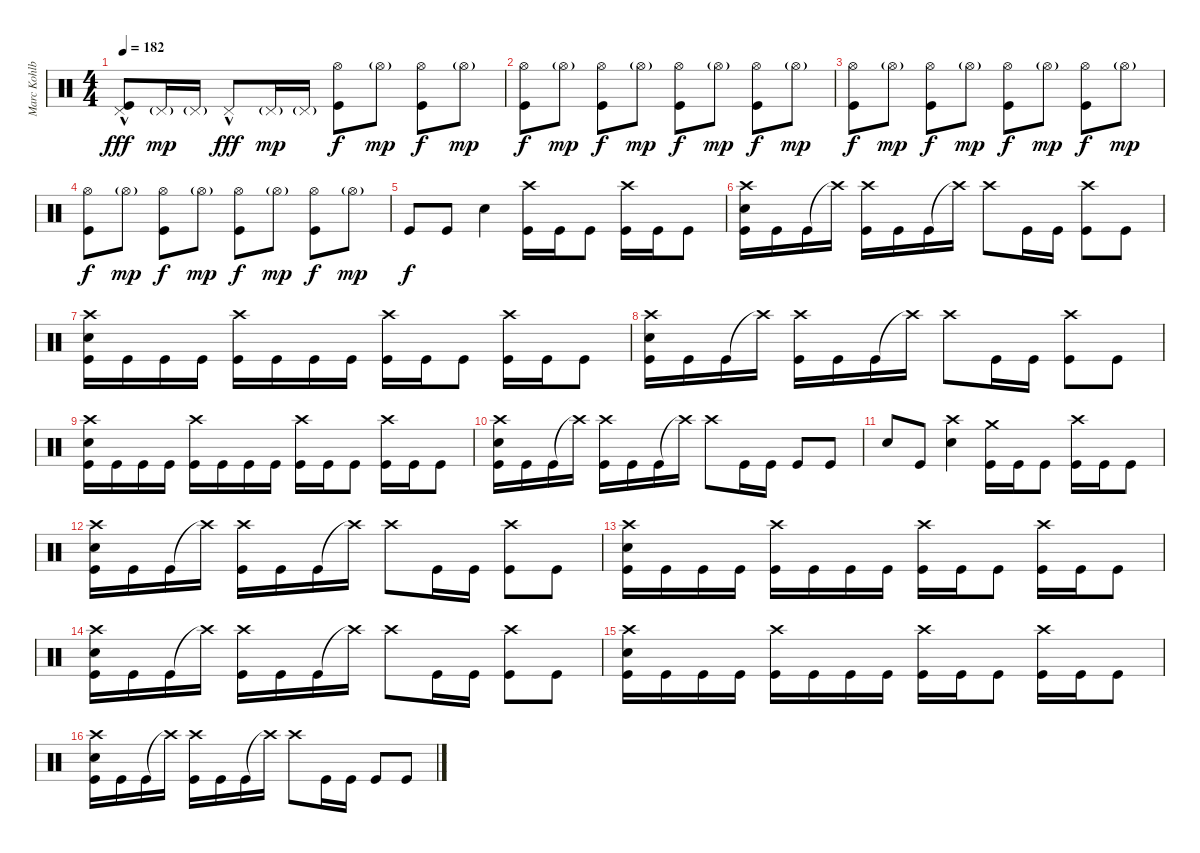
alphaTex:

\track ("Marc Kohlbry" "Marc Kohlb") {instrument percussion}
\staff {score}
\articulation defaults
\ts (4 4)
\tempo 182
\clef neutral
\ks c
("Pedal Hi-Hat (hit)"{hac} "Kick (hit)").8{dy fff} "Pedal Hi-Hat (hit)"{g}.16{dy mp} "Pedal Hi-Hat (hit)"{g}.16 "Pedal Hi-Hat (hit)"{hac}.8{dy fff} "Pedal Hi-Hat (hit)"{g}.16{dy mp} "Pedal Hi-Hat (hit)"{g}.16 ("Hi-Hat (open)" "Kick (hit)").8{dy f} "Hi-Hat (open)"{g}.8{dy mp} ("Hi-Hat (open)" "Kick (hit)").8{dy f} "Hi-Hat (open)"{g}.8{dy mp} |
("Hi-Hat (open)" "Kick (hit)").8{dy f} "Hi-Hat (open)"{g}.8{dy mp} ("Hi-Hat (open)" "Kick (hit)").8{dy f} "Hi-Hat (open)"{g}.8{dy mp} ("Hi-Hat (open)" "Kick (hit)").8{dy f} "Hi-Hat (open)"{g}.8{dy mp} ("Hi-Hat (open)" "Kick (hit)").8{dy f} "Hi-Hat (open)"{g}.8{dy mp} |
("Hi-Hat (open)" "Kick (hit)").8{dy f} "Hi-Hat (open)"{g}.8{dy mp} ("Hi-Hat (open)" "Kick (hit)").8{dy f} "Hi-Hat (open)"{g}.8{dy mp} ("Hi-Hat (open)" "Kick (hit)").8{dy f} "Hi-Hat (open)"{g}.8{dy mp} ("Hi-Hat (open)" "Kick (hit)").8{dy f} "Hi-Hat (open)"{g}.8{dy mp} |
("Hi-Hat (open)" "Kick (hit)").8{dy f} "Hi-Hat (open)"{g}.8{dy mp} ("Hi-Hat (open)" "Kick (hit)").8{dy f} "Hi-Hat (open)"{g}.8{dy mp} ("Hi-Hat (open)" "Kick (hit)").8{dy f} "Hi-Hat (open)"{g}.8{dy mp} ("Hi-Hat (open)" "Kick (hit)").8{dy f} "Hi-Hat (open)"{g}.8{dy mp} |
"Kick (hit)".8{dy f} "Kick (hit)".8 "Electric Snare (hit)".4 ("Crash high (hit)" "Kick (hit)").16 "Kick (hit)".16 "Kick (hit)".8 ("Crash high (hit)" "Kick (hit)").16 "Kick (hit)".16 "Kick (hit)".8 |
("Crash high (hit)" "Electric Snare (hit)" "Kick (hit)").16 "Kick (hit)".16 "Kick (hit)".16 "Crash high (hit)"{t}.16 ("Crash high (hit)" "Kick (hit)").16 "Kick (hit)".16 "Kick (hit)".16 "Crash high (hit)"{t}.16 "Crash high (hit)".8 "Kick (hit)".16 "Kick (hit)".16 ("Crash high (hit)" "Kick (hit)").8 "Kick (hit)".8 |
("Crash high (hit)" "Electric Snare (hit)" "Kick (hit)").16 "Kick (hit)".16 "Kick (hit)".16 "Kick (hit)".16 ("Crash high (hit)" "Kick (hit)").16 "Kick (hit)".16 "Kick (hit)".16 "Kick (hit)".16 ("Crash high (hit)" "Kick (hit)").16 "Kick (hit)".16 "Kick (hit)".8 ("Crash high (hit)" "Kick (hit)").16 "Kick (hit)".16 "Kick (hit)".8 |
("Crash high (hit)" "Electric Snare (hit)" "Kick (hit)").16 "Kick (hit)".16 "Kick (hit)".16 "Crash high (hit)"{t}.16 ("Crash high (hit)" "Kick (hit)").16 "Kick (hit)".16 "Kick (hit)".16 "Crash high (hit)"{t}.16 "Crash high (hit)".8 "Kick (hit)".16 "Kick (hit)".16 ("Crash high (hit)" "Kick (hit)").8 "Kick (hit)".8 |
("Crash high (hit)" "Electric Snare (hit)" "Kick (hit)").16 "Kick (hit)".16 "Kick (hit)".16 "Kick (hit)".16 ("Crash high (hit)" "Kick (hit)").16 "Kick (hit)".16 "Kick (hit)".16 "Kick (hit)".16 ("Crash high (hit)" "Kick (hit)").16 "Kick (hit)".16 "Kick (hit)".8 ("Crash high (hit)" "Kick (hit)").16 "Kick (hit)".16 "Kick (hit)".8 |
("Crash high (hit)" "Electric Snare (hit)" "Kick (hit)").16 "Kick (hit)".16 "Kick (hit)".16 "Crash high (hit)"{t}.16 ("Crash high (hit)" "Kick (hit)").16 "Kick (hit)".16 "Kick (hit)".16 "Crash high (hit)"{t}.16 "Crash high (hit)".8 "Kick (hit)".16 "Kick (hit)".16 "Kick (hit)".8 "Kick (hit)".8 |
"Electric Snare (hit)".8 "Kick (hit)".8 ("Crash high (hit)" "Electric Snare (hit)").4 ("Crash medium (hit)" "Kick (hit)").16 "Kick (hit)".16 "Kick (hit)".8 ("Crash high (hit)" "Kick (hit)").16 "Kick (hit)".16 "Kick (hit)".8 |
("Crash high (hit)" "Electric Snare (hit)" "Kick (hit)").16 "Kick (hit)".16 "Kick (hit)".16 "Crash high (hit)"{t}.16 ("Crash high (hit)" "Kick (hit)").16 "Kick (hit)".16 "Kick (hit)".16 "Crash high (hit)"{t}.16 "Crash high (hit)".8 "Kick (hit)".16 "Kick (hit)".16 ("Crash high (hit)" "Kick (hit)").8 "Kick (hit)".8 |
("Crash high (hit)" "Electric Snare (hit)" "Kick (hit)").16 "Kick (hit)".16 "Kick (hit)".16 "Kick (hit)".16 ("Crash high (hit)" "Kick (hit)").16 "Kick (hit)".16 "Kick (hit)".16 "Kick (hit)".16 ("Crash high (hit)" "Kick (hit)").16 "Kick (hit)".16 "Kick (hit)".8 ("Crash high (hit)" "Kick (hit)").16 "Kick (hit)".16 "Kick (hit)".8 |
("Crash high (hit)" "Electric Snare (hit)" "Kick (hit)").16 "Kick (hit)".16 "Kick (hit)".16 "Crash high (hit)"{t}.16 ("Crash high (hit)" "Kick (hit)").16 "Kick (hit)".16 "Kick (hit)".16 "Crash high (hit)"{t}.16 "Crash high (hit)".8 "Kick (hit)".16 "Kick (hit)".16 ("Crash high (hit)" "Kick (hit)").8 "Kick (hit)".8 |
("Crash high (hit)" "Electric Snare (hit)" "Kick (hit)").16 "Kick (hit)".16 "Kick (hit)".16 "Kick (hit)".16 ("Crash high (hit)" "Kick (hit)").16 "Kick (hit)".16 "Kick (hit)".16 "Kick (hit)".16 ("Crash high (hit)" "Kick (hit)").16 "Kick (hit)".16 "Kick (hit)".8 ("Crash high (hit)" "Kick (hit)").16 "Kick (hit)".16 "Kick (hit)".8 |
("Crash high (hit)" "Electric Snare (hit)" "Kick (hit)").16 "Kick (hit)".16 "Kick (hit)".16 "Crash high (hit)"{t}.16 ("Crash high (hit)" "Kick (hit)").16 "Kick (hit)".16 "Kick (hit)".16 "Crash high (hit)"{t}.16 "Crash high (hit)".8 "Kick (hit)".16 "Kick (hit)".16 "Kick (hit)".8 "Kick (hit)".8
